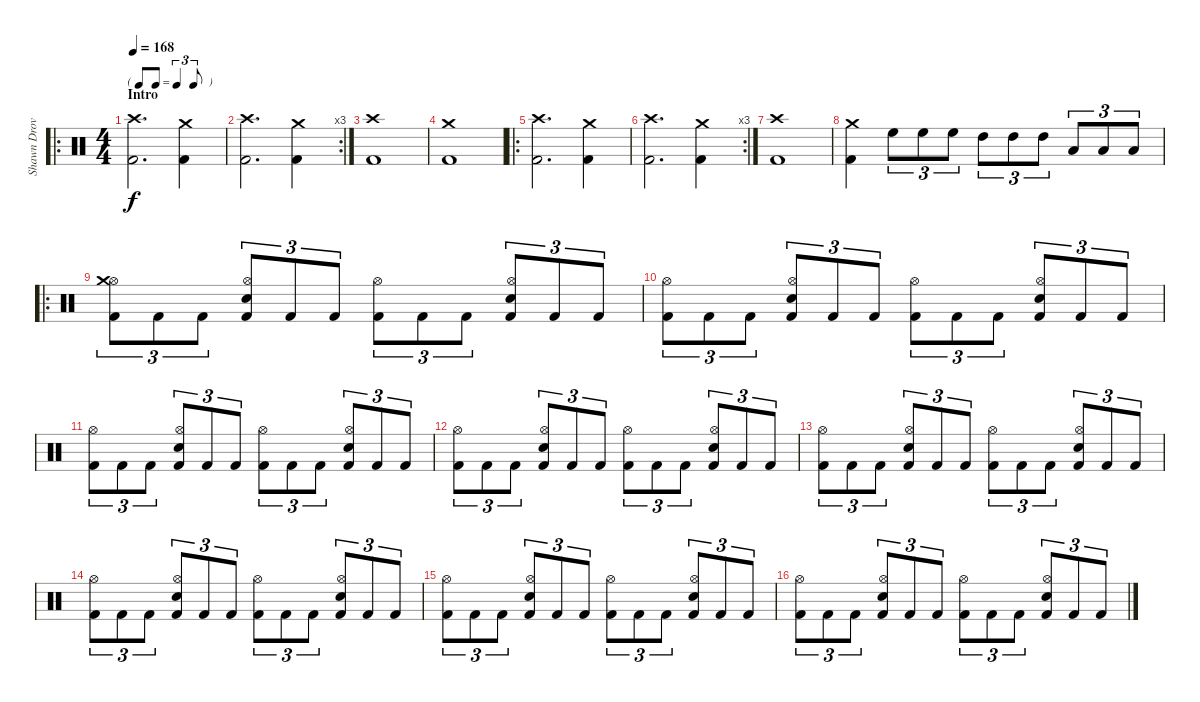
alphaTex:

\track ("Shawn Drover" "Shawn Drov") {instrument percussion}
\staff {score}
\articulation defaults
\ro
\ts (4 4)
\tf triplet8th
\section ("" "Intro")
\tempo 168
\clef neutral
\ks c
("Kick (hit) 2" "Crash high (hit)").2{d dy f} ("Kick (hit) 2" "Crash medium (hit)").4 |
\rc 3
("Kick (hit) 2" "Crash high (hit)").2{d} ("Kick (hit) 2" "Crash medium (hit)").4 |
("Kick (hit) 2" "Crash high (hit)").1 |
("Kick (hit) 2" "Crash medium (hit)").1 |
\ro
("Kick (hit) 2" "Crash high (hit)").2{d} ("Kick (hit) 2" "Crash medium (hit)").4 |
\rc 3
("Kick (hit) 2" "Crash high (hit)").2{d} ("Kick (hit) 2" "Crash medium (hit)").4 |
("Kick (hit) 2" "Crash high (hit)").1 |
("Kick (hit) 2" "Crash medium (hit)").4 "High Floor Tom (hit)".8{tu (3 2)} "High Floor Tom (hit)".8{tu (3 2)} "High Floor Tom (hit)".8{tu (3 2)} "High Tom (hit)".8{tu (3 2)} "High Tom (hit)".8{tu (3 2)} "High Tom (hit)".8{tu (3 2)} "Low Tom (hit)".8{tu (3 2)} "Low Tom (hit)".8{tu (3 2)} "Low Tom (hit)".8{tu (3 2)} |
\ro
("Kick (hit) 2" "Hi-Hat (open)" "Crash medium (hit)").8{tu (3 2)} "Kick (hit) 2".8{tu (3 2)} "Kick (hit) 2".8{tu (3 2)} ("Kick (hit) 2" "Snare (hit) 2" "Hi-Hat (open)").8{tu (3 2)} "Kick (hit) 2".8{tu (3 2)} "Kick (hit) 2".8{tu (3 2)} ("Kick (hit) 2" "Hi-Hat (open)").8{tu (3 2)} "Kick (hit) 2".8{tu (3 2)} "Kick (hit) 2".8{tu (3 2)} ("Kick (hit) 2" "Snare (hit) 2" "Hi-Hat (open)").8{tu (3 2)} "Kick (hit) 2".8{tu (3 2)} "Kick (hit) 2".8{tu (3 2)} |
("Kick (hit) 2" "Hi-Hat (open)").8{tu (3 2)} "Kick (hit) 2".8{tu (3 2)} "Kick (hit) 2".8{tu (3 2)} ("Kick (hit) 2" "Snare (hit) 2" "Hi-Hat (open)").8{tu (3 2)} "Kick (hit) 2".8{tu (3 2)} "Kick (hit) 2".8{tu (3 2)} ("Kick (hit) 2" "Hi-Hat (open)").8{tu (3 2)} "Kick (hit) 2".8{tu (3 2)} "Kick (hit) 2".8{tu (3 2)} ("Kick (hit) 2" "Snare (hit) 2" "Hi-Hat (open)").8{tu (3 2)} "Kick (hit) 2".8{tu (3 2)} "Kick (hit) 2".8{tu (3 2)} |
("Kick (hit) 2" "Hi-Hat (open)").8{tu (3 2)} "Kick (hit) 2".8{tu (3 2)} "Kick (hit) 2".8{tu (3 2)} ("Kick (hit) 2" "Snare (hit) 2" "Hi-Hat (open)").8{tu (3 2)} "Kick (hit) 2".8{tu (3 2)} "Kick (hit) 2".8{tu (3 2)} ("Kick (hit) 2" "Hi-Hat (open)").8{tu (3 2)} "Kick (hit) 2".8{tu (3 2)} "Kick (hit) 2".8{tu (3 2)} ("Kick (hit) 2" "Snare (hit) 2" "Hi-Hat (open)").8{tu (3 2)} "Kick (hit) 2".8{tu (3 2)} "Kick (hit) 2".8{tu (3 2)} |
("Kick (hit) 2" "Hi-Hat (open)").8{tu (3 2)} "Kick (hit) 2".8{tu (3 2)} "Kick (hit) 2".8{tu (3 2)} ("Kick (hit) 2" "Snare (hit) 2" "Hi-Hat (open)").8{tu (3 2)} "Kick (hit) 2".8{tu (3 2)} "Kick (hit) 2".8{tu (3 2)} ("Kick (hit) 2" "Hi-Hat (open)").8{tu (3 2)} "Kick (hit) 2".8{tu (3 2)} "Kick (hit) 2".8{tu (3 2)} ("Kick (hit) 2" "Snare (hit) 2" "Hi-Hat (open)").8{tu (3 2)} "Kick (hit) 2".8{tu (3 2)} "Kick (hit) 2".8{tu (3 2)} |
("Kick (hit) 2" "Hi-Hat (open)").8{tu (3 2)} "Kick (hit) 2".8{tu (3 2)} "Kick (hit) 2".8{tu (3 2)} ("Kick (hit) 2" "Snare (hit) 2" "Hi-Hat (open)").8{tu (3 2)} "Kick (hit) 2".8{tu (3 2)} "Kick (hit) 2".8{tu (3 2)} ("Kick (hit) 2" "Hi-Hat (open)").8{tu (3 2)} "Kick (hit) 2".8{tu (3 2)} "Kick (hit) 2".8{tu (3 2)} ("Kick (hit) 2" "Snare (hit) 2" "Hi-Hat (open)").8{tu (3 2)} "Kick (hit) 2".8{tu (3 2)} "Kick (hit) 2".8{tu (3 2)} |
("Kick (hit) 2" "Hi-Hat (open)").8{tu (3 2)} "Kick (hit) 2".8{tu (3 2)} "Kick (hit) 2".8{tu (3 2)} ("Kick (hit) 2" "Snare (hit) 2" "Hi-Hat (open)").8{tu (3 2)} "Kick (hit) 2".8{tu (3 2)} "Kick (hit) 2".8{tu (3 2)} ("Kick (hit) 2" "Hi-Hat (open)").8{tu (3 2)} "Kick (hit) 2".8{tu (3 2)} "Kick (hit) 2".8{tu (3 2)} ("Kick (hit) 2" "Snare (hit) 2" "Hi-Hat (open)").8{tu (3 2)} "Kick (hit) 2".8{tu (3 2)} "Kick (hit) 2".8{tu (3 2)} |
("Kick (hit) 2" "Hi-Hat (open)").8{tu (3 2)} "Kick (hit) 2".8{tu (3 2)} "Kick (hit) 2".8{tu (3 2)} ("Kick (hit) 2" "Snare (hit) 2" "Hi-Hat (open)").8{tu (3 2)} "Kick (hit) 2".8{tu (3 2)} "Kick (hit) 2".8{tu (3 2)} ("Kick (hit) 2" "Hi-Hat (open)").8{tu (3 2)} "Kick (hit) 2".8{tu (3 2)} "Kick (hit) 2".8{tu (3 2)} ("Kick (hit) 2" "Snare (hit) 2" "Hi-Hat (open)").8{tu (3 2)} "Kick (hit) 2".8{tu (3 2)} "Kick (hit) 2".8{tu (3 2)} |
("Kick (hit) 2" "Hi-Hat (open)").8{tu (3 2)} "Kick (hit) 2".8{tu (3 2)} "Kick (hit) 2".8{tu (3 2)} ("Kick (hit) 2" "Snare (hit) 2" "Hi-Hat (open)").8{tu (3 2)} "Kick (hit) 2".8{tu (3 2)} "Kick (hit) 2".8{tu (3 2)} ("Kick (hit) 2" "Hi-Hat (open)").8{tu (3 2)} "Kick (hit) 2".8{tu (3 2)} "Kick (hit) 2".8{tu (3 2)} ("Kick (hit) 2" "Snare (hit) 2" "Hi-Hat (open)").8{tu (3 2)} "Kick (hit) 2".8{tu (3 2)} "Kick (hit) 2".8{tu (3 2)}
